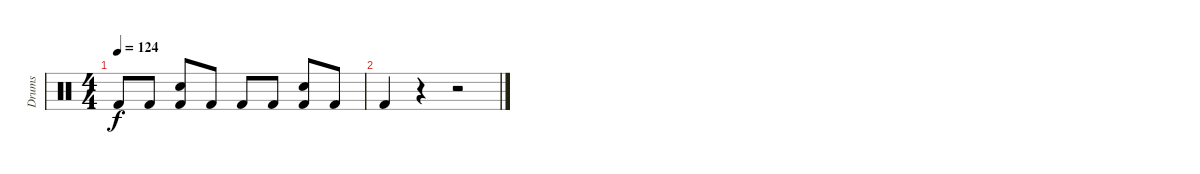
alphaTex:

\track ("Drums" "Drums") {instrument percussion}
\staff {score}
\articulation defaults
\ts (4 4)
\tempo 124
\clef neutral
\ks c "Kick (hit) 2".8{dy f} "Kick (hit) 2".8
("Kick (hit) 2" "Electric Snare (hit)").8 "Kick (hit) 2".8 "Kick (hit) 2".8 "Kick (hit) 2".8 ("Kick (hit) 2" "Electric Snare (hit)").8 "Kick (hit) 2".8 |
"Kick (hit) 2".4 r.4 r.2
